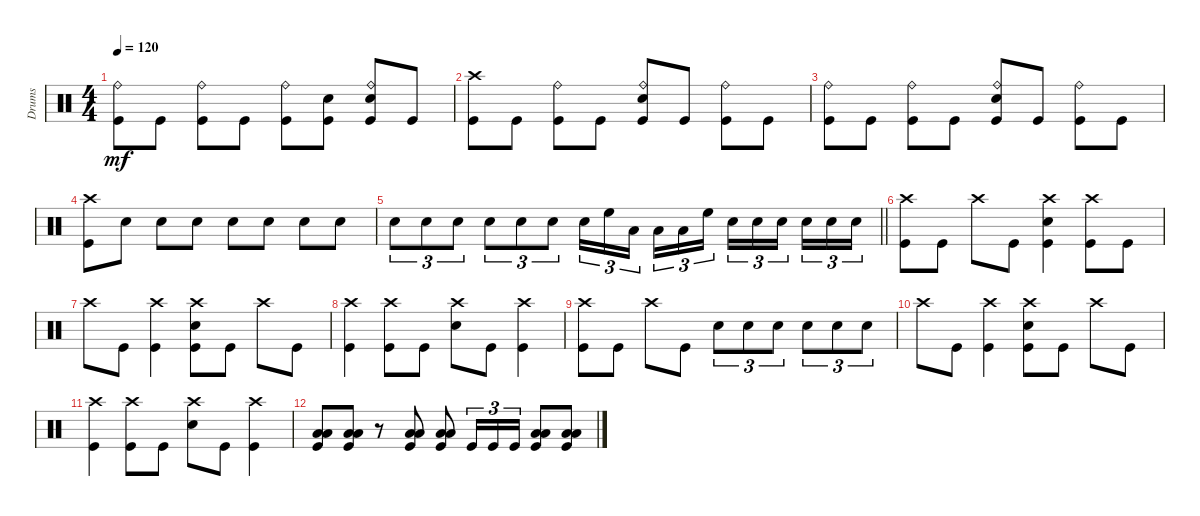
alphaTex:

\track ("Drums" "Drums") {instrument percussion}
\staff {score}
\articulation defaults
\ts (4 4)
\tempo 120
\clef neutral
\ks c
("Kick (hit)" "Ride (bell)").8{dy mf} "Kick (hit)".8 ("Kick (hit)" "Ride (bell)").8 "Kick (hit)".8 ("Kick (hit)" "Ride (bell)").8 ("Kick (hit)" "Snare (hit) 2").8 ("Kick (hit)" "Snare (hit) 2" "Ride (bell)").8 "Kick (hit)".8 |
("Crash high (hit)" "Kick (hit)").8 "Kick (hit)".8 ("Ride (bell)" "Kick (hit)").8 "Kick (hit)".8 ("Snare (hit) 2" "Ride (bell)" "Kick (hit)").8 "Kick (hit)".8 ("Ride (bell)" "Kick (hit)").8 "Kick (hit)".8 |
("Kick (hit)" "Ride (bell)").8 "Kick (hit)".8 ("Kick (hit)" "Ride (bell)").8 "Kick (hit)".8 ("Kick (hit)" "Snare (hit) 2" "Ride (bell)").8 "Kick (hit)".8 ("Kick (hit)" "Ride (bell)").8 "Kick (hit)".8 |
("Kick (hit)" "Crash high (hit)").8 "Snare (hit) 2".8 "Snare (hit) 2".8 "Snare (hit) 2".8 "Snare (hit) 2".8 "Snare (hit) 2".8 "Snare (hit) 2".8 "Snare (hit) 2".8 |
\barLineRight lightlight "Snare (hit) 2".8{tu (3 2)} "Snare (hit) 2".8{tu (3 2)} "Snare (hit) 2".8{tu (3 2)} "Snare (hit) 2".8{tu (3 2)} "Snare (hit) 2".8{tu (3 2)} "Snare (hit) 2".8{tu (3 2)} "Snare (hit) 2".16{tu (3 2)} "High Floor Tom (hit)".16{tu (3 2)} "Low Tom (hit)".16{tu (3 2) beam splitsecondary} "Low Floor Tom (hit)".16{tu (3 2)} "Low Tom (hit)".16{tu (3 2)} "High Floor Tom (hit)".16{tu (3 2)} "Snare (hit) 2".16{tu (3 2)} "Snare (hit) 2".16{tu (3 2)} "Snare (hit) 2".16{tu (3 2) beam splitsecondary} "Snare (hit) 2".16{tu (3 2)} "Snare (hit) 2".16{tu (3 2)} "Snare (hit) 2".16{tu (3 2)}
|
("Crash high (hit)" "Kick (hit)").8 "Kick (hit)".8 "Crash high (hit)".8 "Kick (hit)".8 ("Kick (hit)" "Snare (hit) 2" "Crash high (hit)").4 ("Crash high (hit)" "Kick (hit)").8 "Kick (hit)".8 |
"Crash high (hit)".8 "Kick (hit)".8 ("Kick (hit)" "Crash high (hit)").4 ("Kick (hit)" "Snare (hit) 2" "Crash high (hit)").8 "Kick (hit)".8 "Crash high (hit)".8 "Kick (hit)".8 |
("Kick (hit)" "Crash high (hit)").4 ("Kick (hit)" "Crash high (hit)").8 "Kick (hit)".8 ("Snare (hit) 2" "Crash high (hit)").8 "Kick (hit)".8 ("Kick (hit)" "Crash high (hit)").4 |
("Kick (hit)" "Crash high (hit)").8 "Kick (hit)".8 "Crash high (hit)".8 "Kick (hit)".8 "Snare (hit) 2".8{tu (3 2)} "Snare (hit) 2".8{tu (3 2)} "Snare (hit) 2".8{tu (3 2)} "Snare (hit) 2".8{tu (3 2)} "Snare (hit) 2".8{tu (3 2)} "Snare (hit) 2".8{tu (3 2)} |
"Crash high (hit)".8 "Kick (hit)".8 ("Crash high (hit)" "Kick (hit)").4 ("Snare (hit) 2" "Crash high (hit)" "Kick (hit)").8 "Kick (hit)".8 "Crash high (hit)".8 "Kick (hit)".8 |
("Crash high (hit)" "Kick (hit)").4 ("Crash high (hit)" "Kick (hit)").8 "Kick (hit)".8 ("Snare (hit) 2" "Crash high (hit)").8 "Kick (hit)".8 ("Crash high (hit)" "Kick (hit)").4 |
("Low Floor Tom (hit)" "Low Tom (hit)" "Kick (hit)").8 ("Low Floor Tom (hit)" "Low Tom (hit)" "Kick (hit)").8 r.8 ("Low Floor Tom (hit)" "Low Tom (hit)" "Kick (hit)").8 ("Low Floor Tom (hit)" "Low Tom (hit)" "Kick (hit)").8 "Kick (hit)".16{tu (3 2)} "Kick (hit)".16{tu (3 2)} "Kick (hit)".16{tu (3 2)} ("Low Floor Tom (hit)" "Low Tom (hit)" "Kick (hit)").8 ("Low Floor Tom (hit)" "Low Tom (hit)" "Kick (hit)").8
